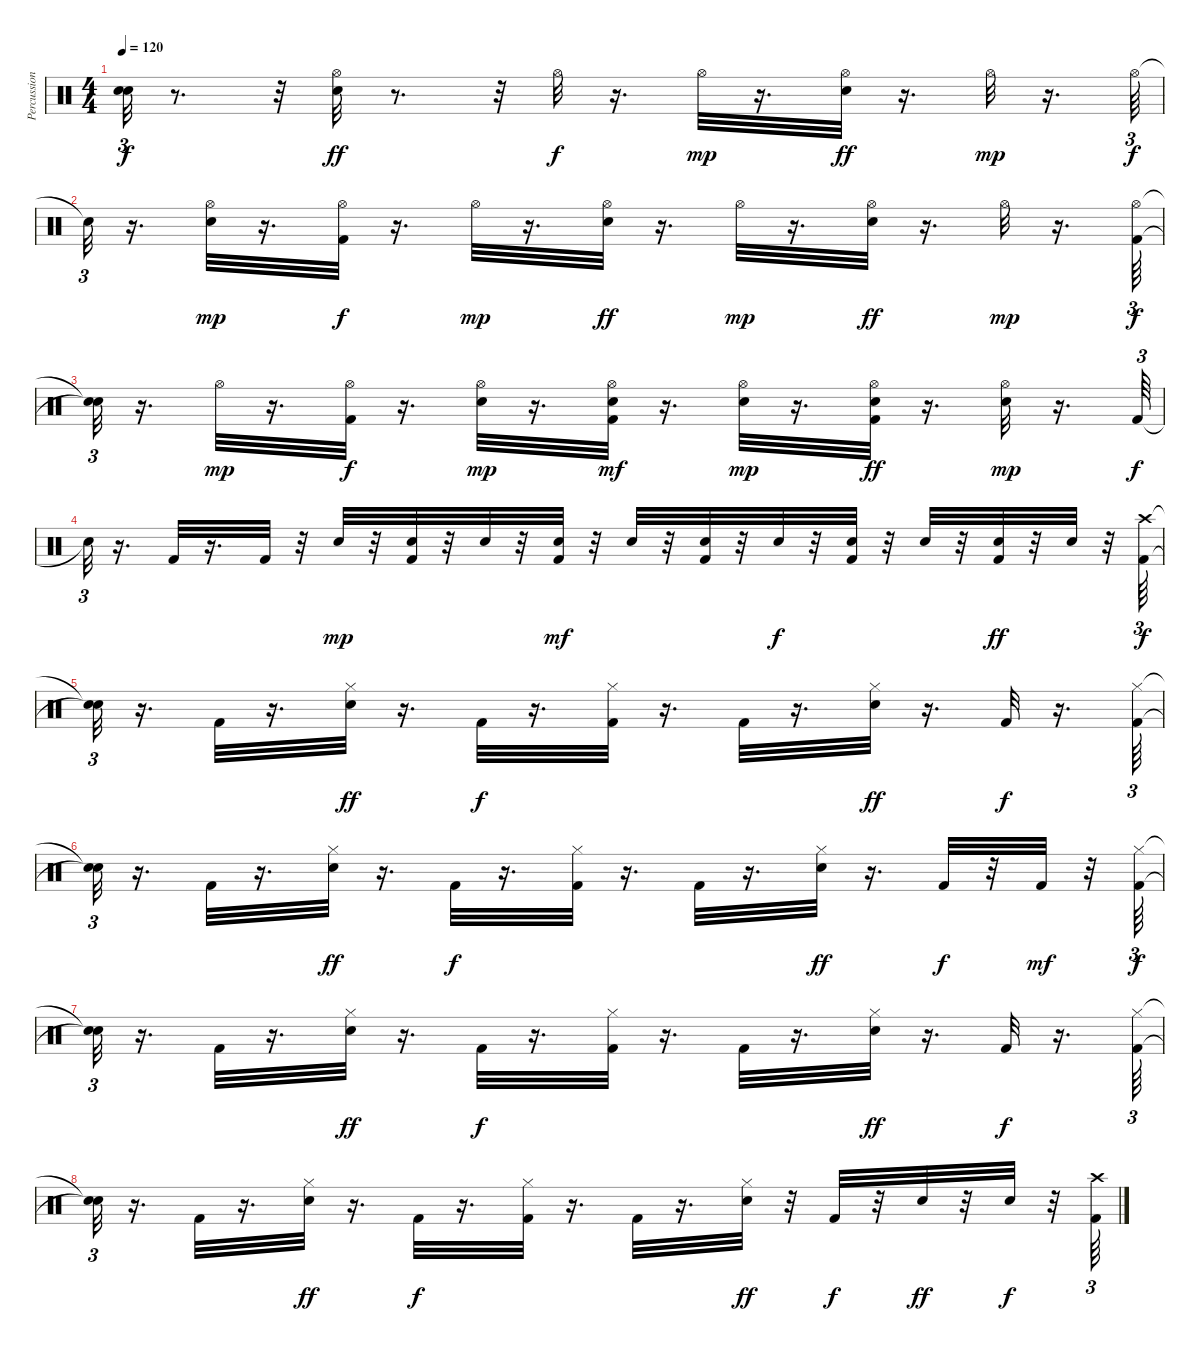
\track ("Percussion" "Percussion") {instrument percussion}
\staff {score}
\articulation defaults
\ts (4 4)
\tempo 120
\clef neutral
\ks c
("Snare (hit)"{t} "Snare (hit)"{t}).32{tu (3 2) dy f} r.8{d} r.32 ("Hi-Hat (open)" "Snare (hit) 2").32{dy ff} r.8{d} r.32 "Hi-Hat (open)".32{dy f} r.16{d} "Hi-Hat (open)".32{dy mp} r.16{d} ("Snare (hit) 2" "Hi-Hat (open)").32{dy ff} r.16{d} "Hi-Hat (open)".32{dy mp} r.16{d} "Hi-Hat (open)".64{tu (3 2) dy f} |
"Snare (hit)"{t}.32{tu (3 2)} r.16{d} ("Snare (hit) 2" "Hi-Hat (open)").32{dy mp} r.16{d} ("Hi-Hat (open)" "Kick (hit) 2").32{dy f} r.16{d} "Hi-Hat (open)".32{dy mp} r.16{d} ("Snare (hit) 2" "Hi-Hat (open)").32{dy ff} r.16{d} "Hi-Hat (open)".32{dy mp} r.16{d} ("Snare (hit) 2" "Hi-Hat (open)").32{dy ff} r.16{d} "Hi-Hat (open)".32{dy mp} r.16{d} ("Hi-Hat (open)" "Kick (hit) 2").64{tu (3 2) dy f} |
("Snare (hit)"{t} "Snare (hit)"{t}).32{tu (3 2)} r.16{d} "Hi-Hat (open)".32{dy mp} r.16{d} ("Hi-Hat (open)" "Kick (hit) 2").32{dy f} r.16{d} ("Snare (hit) 2" "Hi-Hat (open)").32{dy mp} r.16{d} ("Snare (hit) 2" "Hi-Hat (open)" "Kick (hit) 2").32{dy mf} r.16{d} ("Snare (hit) 2" "Hi-Hat (open)").32{dy mp} r.16{d} ("Snare (hit) 2" "Hi-Hat (open)" "Kick (hit) 2").32{dy ff} r.16{d} ("Snare (hit) 2" "Hi-Hat (open)").32{dy mp} r.16{d} "Kick (hit) 2".64{tu (3 2) dy f} |
"Snare (hit)"{t}.32{tu (3 2)} r.16{d} "Kick (hit) 2".32 r.16{d} "Kick (hit) 2".32 r.32 "Snare (hit) 2".32{dy mp} r.32 ("Snare (hit) 2" "Kick (hit) 2").32 r.32 "Snare (hit) 2".32 r.32 ("Snare (hit) 2" "Kick (hit) 2").32{dy mf} r.32 "Snare (hit) 2".32 r.32 ("Snare (hit) 2" "Kick (hit) 2").32 r.32 "Snare (hit) 2".32{dy f} r.32 ("Snare (hit) 2" "Kick (hit) 2").32 r.32 "Snare (hit) 2".32 r.32 ("Snare (hit) 2" "Kick (hit) 2").32{dy ff} r.32 "Snare (hit) 2".32 r.32 ("Crash high (hit)" "Kick (hit) 2").64{tu (3 2) dy f} |
("Snare (hit)"{t} "Snare (hit)"{t}).32{tu (3 2)} r.16{d} "Kick (hit) 2".32 r.16{d} ("Snare (hit) 2" "Hi-Hat (closed)").32{dy ff} r.16{d} "Kick (hit) 2".32{dy f} r.16{d} ("Hi-Hat (closed)" "Kick (hit) 2").32 r.16{d} "Kick (hit) 2".32 r.16{d} ("Snare (hit) 2" "Hi-Hat (closed)").32{dy ff} r.16{d} "Kick (hit) 2".32{dy f} r.16{d} ("Hi-Hat (closed)" "Kick (hit) 2").64{tu (3 2)} |
("Snare (hit)"{t} "Snare (hit)"{t}).32{tu (3 2)} r.16{d} "Kick (hit) 2".32 r.16{d} ("Snare (hit) 2" "Hi-Hat (closed)").32{dy ff} r.16{d} "Kick (hit) 2".32{dy f} r.16{d} ("Hi-Hat (closed)" "Kick (hit) 2").32 r.16{d} "Kick (hit) 2".32 r.16{d} ("Snare (hit) 2" "Hi-Hat (closed)").32{dy ff} r.16{d} "Kick (hit) 2".32{dy f} r.32 "Kick (hit) 2".32{dy mf} r.32 ("Hi-Hat (closed)" "Kick (hit) 2").64{tu (3 2) dy f} |
("Snare (hit)"{t} "Snare (hit)"{t}).32{tu (3 2)} r.16{d} "Kick (hit) 2".32 r.16{d} ("Snare (hit) 2" "Hi-Hat (closed)").32{dy ff} r.16{d} "Kick (hit) 2".32{dy f} r.16{d} ("Hi-Hat (closed)" "Kick (hit) 2").32 r.16{d} "Kick (hit) 2".32 r.16{d} ("Snare (hit) 2" "Hi-Hat (closed)").32{dy ff} r.16{d} "Kick (hit) 2".32{dy f} r.16{d} ("Hi-Hat (closed)" "Kick (hit) 2").64{tu (3 2)} |
("Snare (hit)"{t} "Snare (hit)"{t}).32{tu (3 2)} r.16{d} "Kick (hit) 2".32 r.16{d} ("Snare (hit) 2" "Hi-Hat (closed)").32{dy ff} r.16{d} "Kick (hit) 2".32{dy f} r.16{d} ("Hi-Hat (closed)" "Kick (hit) 2").32 r.16{d} "Kick (hit) 2".32 r.16{d} ("Hi-Hat (closed)" "Snare (hit) 2").32{dy ff} r.32 "Kick (hit) 2".32{dy f} r.32 "Snare (hit) 2".32{dy ff} r.32 "Snare (hit) 2".32{dy f} r.32 ("Crash high (hit)" "Kick (hit) 2").64{tu (3 2)}
